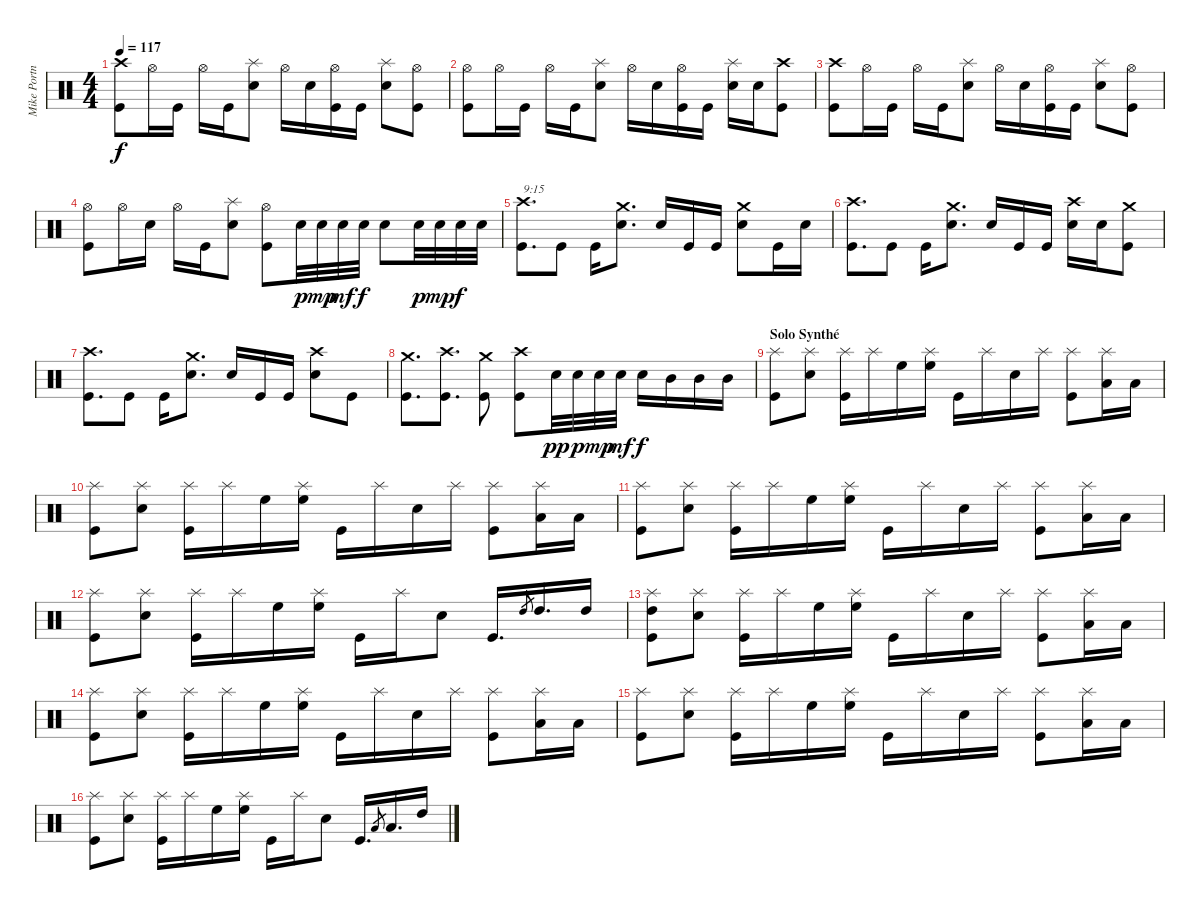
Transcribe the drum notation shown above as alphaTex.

\track ("Mike Portnoy" "Mike Portn") {instrument percussion}
\staff {score}
\articulation defaults
\ts (4 4)
\tempo 117
\clef neutral
\ks c
("Crash high (hit)" "Kick (hit)").8{dy f} "Hi-Hat (open)".16 "Kick (hit)".16 "Hi-Hat (open)".16 "Kick (hit)".16 ("Splash (hit)" "Snare (hit) 2").8 "Hi-Hat (open)".16 "Snare (hit) 2".16 ("Hi-Hat (open)" "Kick (hit)").16 "Kick (hit)".16 ("Splash (hit)" "Snare (hit) 2").8 ("Hi-Hat (open)" "Kick (hit)").8 |
("Hi-Hat (open)" "Kick (hit)").8 "Hi-Hat (open)".16 "Kick (hit)".16 "Hi-Hat (open)".16 "Kick (hit)".16 ("Splash (hit)" "Snare (hit) 2").8 "Hi-Hat (open)".16 "Snare (hit) 2".16 ("Hi-Hat (open)" "Kick (hit)").16 "Kick (hit)".16 ("Splash (hit)" "Snare (hit) 2").16 "Snare (hit) 2".16 ("Crash high (hit)" "Kick (hit)").8 |
("Crash high (hit)" "Kick (hit)").8 "Hi-Hat (open)".16 "Kick (hit)".16 "Hi-Hat (open)".16 "Kick (hit)".16 ("Splash (hit)" "Snare (hit) 2").8 "Hi-Hat (open)".16 "Snare (hit) 2".16 ("Hi-Hat (open)" "Kick (hit)").16 "Kick (hit)".16 ("Splash (hit)" "Snare (hit) 2").8 ("Hi-Hat (open)" "Kick (hit)").8 |
("Hi-Hat (open)" "Kick (hit)").8 "Hi-Hat (open)".16 "Snare (hit) 2".16 "Hi-Hat (open)".16 "Kick (hit)".16 ("Splash (hit)" "Snare (hit) 2").8 ("Hi-Hat (open)" "Kick (hit)").8 "Snare (hit) 2".32{dy p} "Snare (hit) 2".32{dy mp} "Snare (hit) 2".32{dy mf} "Snare (hit) 2".32{dy f} "Snare (hit) 2".8 "Snare (hit) 2".32{dy p} "Snare (hit) 2".32{dy mp} "Snare (hit) 2".32{dy f} "Snare (hit) 2".32 |
("Crash high (hit)" "Kick (hit)").8{d txt "9:15"} "Kick (hit)".8 "Kick (hit)".16 ("Crash medium (hit)" "Snare (hit) 2").8{d} "Snare (hit) 2".16 "Kick (hit)".16 "Kick (hit)".16 ("Crash medium (hit)" "Snare (hit) 2").8 "Kick (hit)".16 "Snare (hit) 2".16 |
("Crash high (hit)" "Kick (hit)").8{d} "Kick (hit)".8 "Kick (hit)".16 ("Crash medium (hit)" "Snare (hit) 2").8{d} "Snare (hit) 2".16 "Kick (hit)".16 "Kick (hit)".16 ("Crash high (hit)" "Snare (hit) 2").16 "Snare (hit) 2".16 ("Crash medium (hit)" "Kick (hit)").8 |
("Crash high (hit)" "Kick (hit)").8{d} "Kick (hit)".8 "Kick (hit)".16 ("Crash medium (hit)" "Snare (hit) 2").8{d} "Snare (hit) 2".16 "Kick (hit)".16 "Kick (hit)".16 ("Crash high (hit)" "Snare (hit) 2").8 "Kick (hit)".8 |
("Crash medium (hit)" "Kick (hit)").8{d} ("Crash high (hit)" "Kick (hit)").8{d} ("Crash medium (hit)" "Kick (hit)").8 ("Crash high (hit)" "Kick (hit)").8 "Snare (hit) 2".32{dy pp} "Snare (hit) 2".32{dy p} "Snare (hit) 2".32{dy mp} "Snare (hit) 2".32{dy mf} "Snare (hit) 2".16{dy f} "Mid Tom (hit)".16 "Mid Tom (hit)".16 "Mid Tom (hit)".16 |
\section ("" "Solo Synthé")
("Splash (hit)" "Kick (hit)").8 ("Splash (hit)" "Snare (hit) 2").8 ("Splash (hit)" "Kick (hit)").16 "Splash (hit)".16 "High Floor Tom (hit)".16 ("Splash (hit)" "High Floor Tom (hit)").16 "Kick (hit)".16 "Splash (hit)".16 "Snare (hit) 2".16 "Splash (hit)".16 ("Splash (hit)" "Kick (hit)").8 ("Splash (hit)" "Low Tom (hit)").16 "Low Tom (hit)".16 |
("Splash (hit)" "Kick (hit)").8 ("Splash (hit)" "Snare (hit) 2").8 ("Splash (hit)" "Kick (hit)").16 "Splash (hit)".16 "High Floor Tom (hit)".16 ("Splash (hit)" "High Floor Tom (hit)").16 "Kick (hit)".16 "Splash (hit)".16 "Snare (hit) 2".16 "Splash (hit)".16 ("Splash (hit)" "Kick (hit)").8 ("Splash (hit)" "Low Floor Tom (hit)").16 "Low Floor Tom (hit)".16 |
("Splash (hit)" "Kick (hit)").8 ("Splash (hit)" "Snare (hit) 2").8 ("Splash (hit)" "Kick (hit)").16 "Splash (hit)".16 "High Floor Tom (hit)".16 ("Splash (hit)" "High Floor Tom (hit)").16 "Kick (hit)".16 "Splash (hit)".16 "Snare (hit) 2".16 "Splash (hit)".16 ("Splash (hit)" "Kick (hit)").8 ("Splash (hit)" "Low Tom (hit)").16 "Low Tom (hit)".16 |
("Splash (hit)" "Kick (hit)").8 ("Splash (hit)" "Snare (hit) 2").8 ("Splash (hit)" "Kick (hit)").16 "Splash (hit)".16 "High Floor Tom (hit)".16 ("Splash (hit)" "High Floor Tom (hit)").16 "Kick (hit)".16 "Splash (hit)".16 "Snare (hit) 2".8 "Kick (hit)".16{d} "High Tom (hit)".8{gr} "High Tom (hit)".16{d} "High Tom (hit)".16 |
("Splash (hit)" "High Tom (hit)" "Kick (hit)").8 ("Splash (hit)" "Snare (hit) 2").8 ("Splash (hit)" "Kick (hit)").16 "Splash (hit)".16 "High Floor Tom (hit)".16 ("Splash (hit)" "High Floor Tom (hit)").16 "Kick (hit)".16 "Splash (hit)".16 "Snare (hit) 2".16 "Splash (hit)".16 ("Splash (hit)" "Kick (hit)").8 ("Splash (hit)" "Low Tom (hit)").16 "Low Tom (hit)".16 |
("Splash (hit)" "Kick (hit)").8 ("Splash (hit)" "Snare (hit) 2").8 ("Splash (hit)" "Kick (hit)").16 "Splash (hit)".16 "High Floor Tom (hit)".16 ("Splash (hit)" "High Floor Tom (hit)").16 "Kick (hit)".16 "Splash (hit)".16 "Snare (hit) 2".16 "Splash (hit)".16 ("Splash (hit)" "Kick (hit)").8 ("Splash (hit)" "Low Floor Tom (hit)").16 "Low Floor Tom (hit)".16 |
("Splash (hit)" "Kick (hit)").8 ("Splash (hit)" "Snare (hit) 2").8 ("Splash (hit)" "Kick (hit)").16 "Splash (hit)".16 "High Floor Tom (hit)".16 ("Splash (hit)" "High Floor Tom (hit)").16 "Kick (hit)".16 "Splash (hit)".16 "Snare (hit) 2".16 "Splash (hit)".16 ("Splash (hit)" "Kick (hit)").8 ("Splash (hit)" "Low Tom (hit)").16 "Low Tom (hit)".16 |
("Splash (hit)" "Kick (hit)").8 ("Splash (hit)" "Snare (hit) 2").8 ("Splash (hit)" "Kick (hit)").16 "Splash (hit)".16 "High Floor Tom (hit)".16 ("Splash (hit)" "High Floor Tom (hit)").16 "Kick (hit)".16 "Splash (hit)".16 "Snare (hit) 2".8 "Kick (hit)".16{d} "Low Tom (hit)".8{gr} "Low Tom (hit)".16{d} "High Tom (hit)".16
